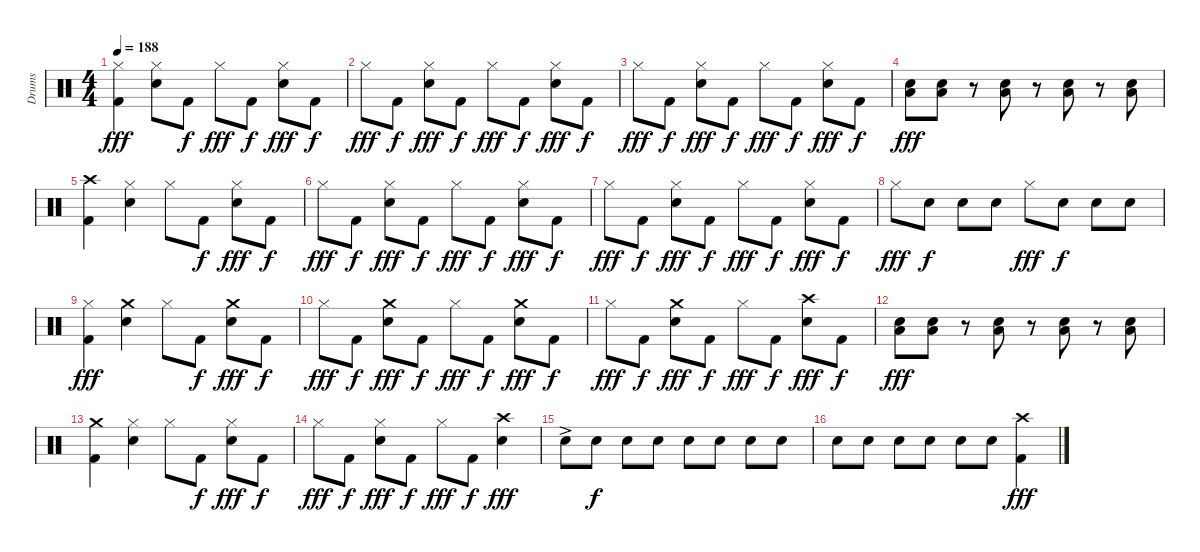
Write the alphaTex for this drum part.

\track ("Drums" "Drums") {instrument percussion}
\staff {score}
\articulation defaults
\ts (4 4)
\tempo 188
\clef neutral
\ks c
("Hi-Hat (closed)" "Kick (hit) 2").4{dy fff} ("Hi-Hat (closed)" "Snare (hit) 2").8 "Kick (hit) 2".8{dy f} "Hi-Hat (closed)".8{dy fff} "Kick (hit) 2".8{dy f} ("Hi-Hat (closed)" "Snare (hit) 2").8{dy fff} "Kick (hit) 2".8{dy f} |
"Hi-Hat (closed)".8{dy fff} "Kick (hit) 2".8{dy f} ("Hi-Hat (closed)" "Snare (hit) 2").8{dy fff} "Kick (hit) 2".8{dy f} "Hi-Hat (closed)".8{dy fff} "Kick (hit) 2".8{dy f} ("Hi-Hat (closed)" "Snare (hit) 2").8{dy fff} "Kick (hit) 2".8{dy f} |
"Hi-Hat (closed)".8{dy fff} "Kick (hit) 2".8{dy f} ("Hi-Hat (closed)" "Snare (hit) 2").8{dy fff} "Kick (hit) 2".8{dy f} "Hi-Hat (closed)".8{dy fff} "Kick (hit) 2".8{dy f} ("Hi-Hat (closed)" "Snare (hit) 2").8{dy fff} "Kick (hit) 2".8{dy f} |
("Low Floor Tom (hit)" "Snare (hit) 2").8{dy fff} ("Low Floor Tom (hit)" "Snare (hit) 2").8 r.8 ("Low Floor Tom (hit)" "Snare (hit) 2").8 r.8 ("Low Floor Tom (hit)" "Snare (hit) 2").8 r.8 ("Low Floor Tom (hit)" "Snare (hit) 2").8 |
("Crash high (hit)" "Kick (hit) 2").4 ("Hi-Hat (closed)" "Snare (hit) 2").4 "Hi-Hat (closed)".8 "Kick (hit) 2".8{dy f} ("Hi-Hat (closed)" "Snare (hit) 2").8{dy fff} "Kick (hit) 2".8{dy f} |
"Hi-Hat (closed)".8{dy fff} "Kick (hit) 2".8{dy f} ("Hi-Hat (closed)" "Snare (hit) 2").8{dy fff} "Kick (hit) 2".8{dy f} "Hi-Hat (closed)".8{dy fff} "Kick (hit) 2".8{dy f} ("Hi-Hat (closed)" "Snare (hit) 2").8{dy fff} "Kick (hit) 2".8{dy f} |
"Hi-Hat (closed)".8{dy fff} "Kick (hit) 2".8{dy f} ("Hi-Hat (closed)" "Snare (hit) 2").8{dy fff} "Kick (hit) 2".8{dy f} "Hi-Hat (closed)".8{dy fff} "Kick (hit) 2".8{dy f} ("Hi-Hat (closed)" "Snare (hit) 2").8{dy fff} "Kick (hit) 2".8{dy f} |
"Hi-Hat (closed)".8{dy fff} "Snare (hit) 2".8{dy f} "Snare (hit) 2".8 "Snare (hit) 2".8 "Hi-Hat (closed)".8{dy fff} "Snare (hit) 2".8{dy f} "Snare (hit) 2".8 "Snare (hit) 2".8 |
("Hi-Hat (closed)" "Kick (hit) 2").4{dy fff} ("Crash medium (hit)" "Snare (hit) 2").4 "Hi-Hat (closed)".8 "Kick (hit) 2".8{dy f} ("Crash medium (hit)" "Snare (hit) 2").8{dy fff} "Kick (hit) 2".8{dy f} |
"Hi-Hat (closed)".8{dy fff} "Kick (hit) 2".8{dy f} ("Crash medium (hit)" "Snare (hit) 2").8{dy fff} "Kick (hit) 2".8{dy f} "Hi-Hat (closed)".8{dy fff} "Kick (hit) 2".8{dy f} ("Crash medium (hit)" "Snare (hit) 2").8{dy fff} "Kick (hit) 2".8{dy f} |
"Hi-Hat (closed)".8{dy fff} "Kick (hit) 2".8{dy f} ("Crash medium (hit)" "Snare (hit) 2").8{dy fff} "Kick (hit) 2".8{dy f} "Hi-Hat (closed)".8{dy fff} "Kick (hit) 2".8{dy f} ("Crash high (hit)" "Snare (hit) 2").8{dy fff} "Kick (hit) 2".8{dy f} |
("Low Floor Tom (hit)" "Snare (hit) 2").8{dy fff} ("Low Floor Tom (hit)" "Snare (hit) 2").8 r.8 ("Low Floor Tom (hit)" "Snare (hit) 2").8 r.8 ("Low Floor Tom (hit)" "Snare (hit) 2").8 r.8 ("Low Floor Tom (hit)" "Snare (hit) 2").8 |
("Crash medium (hit)" "Kick (hit) 2").4 ("Hi-Hat (closed)" "Snare (hit) 2").4 "Hi-Hat (closed)".8 "Kick (hit) 2".8{dy f} ("Hi-Hat (closed)" "Snare (hit) 2").8{dy fff} "Kick (hit) 2".8{dy f} |
"Hi-Hat (closed)".8{dy fff} "Kick (hit) 2".8{dy f} ("Hi-Hat (closed)" "Snare (hit) 2").8{dy fff} "Kick (hit) 2".8{dy f} "Hi-Hat (closed)".8{dy fff} "Kick (hit) 2".8{dy f} ("Crash high (hit)" "Snare (hit) 2").4{dy fff} |
"Snare (hit) 2"{ac}.8 "Snare (hit) 2".8{dy f} "Snare (hit) 2".8 "Snare (hit) 2".8 "Snare (hit) 2".8 "Snare (hit) 2".8 "Snare (hit) 2".8 "Snare (hit) 2".8 |
"Snare (hit) 2".8 "Snare (hit) 2".8 "Snare (hit) 2".8 "Snare (hit) 2".8 "Snare (hit) 2".8 "Snare (hit) 2".8 ("Crash high (hit)" "Kick (hit) 2").4{dy fff}
